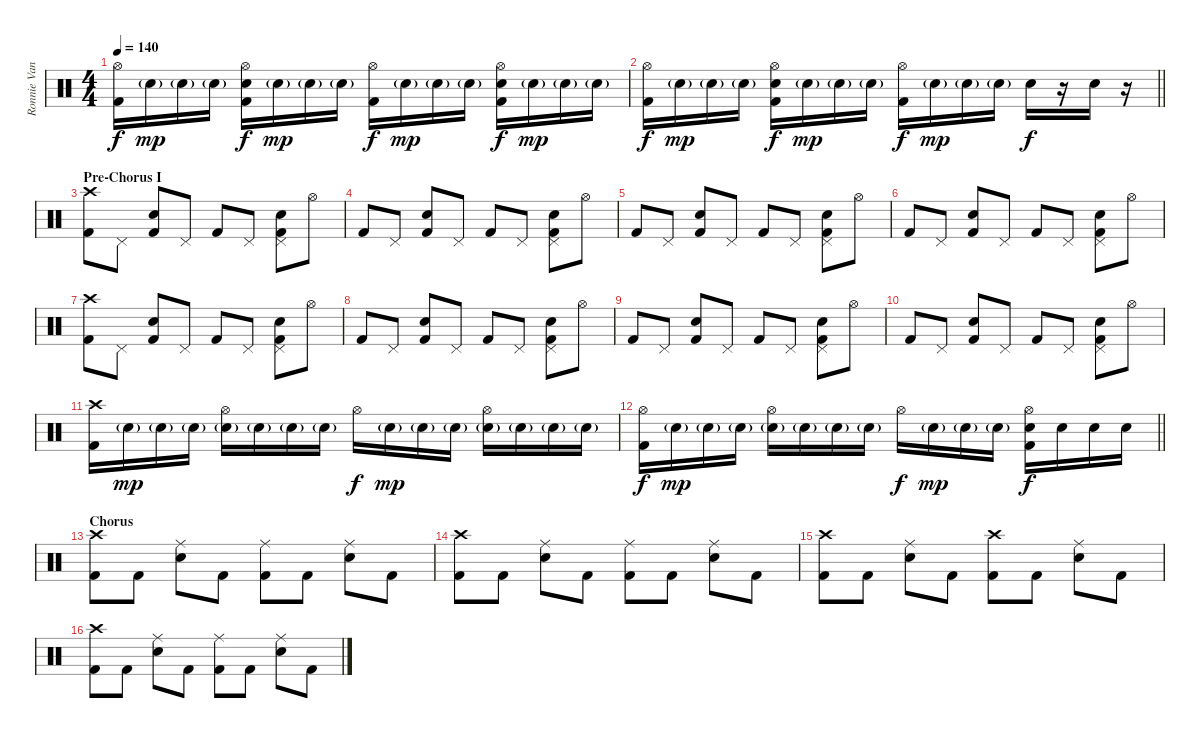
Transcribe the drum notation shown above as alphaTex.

\track ("Ronnie Vannucci Jr.'s drums" "Ronnie Van") {instrument percussion}
\staff {score}
\articulation defaults
\ts (4 4)
\tempo 140
\clef neutral
\ks c
("Hi-Hat (open)" "Kick (hit) 2").16{dy f} "Electric Snare (hit)"{g}.16{dy mp} "Electric Snare (hit)"{g}.16 "Electric Snare (hit)"{g}.16 ("Hi-Hat (open)" "Electric Snare (hit)" "Kick (hit) 2").16{dy f} "Electric Snare (hit)"{g}.16{dy mp} "Electric Snare (hit)"{g}.16 "Electric Snare (hit)"{g}.16 ("Hi-Hat (open)" "Kick (hit) 2").16{dy f} "Electric Snare (hit)"{g}.16{dy mp} "Electric Snare (hit)"{g}.16 "Electric Snare (hit)"{g}.16 ("Hi-Hat (open)" "Electric Snare (hit)" "Kick (hit) 2").16{dy f} "Electric Snare (hit)"{g}.16{dy mp} "Electric Snare (hit)"{g}.16 "Electric Snare (hit)"{g}.16 |
\barLineRight lightlight
("Hi-Hat (open)" "Kick (hit) 2").16{dy f} "Electric Snare (hit)"{g}.16{dy mp} "Electric Snare (hit)"{g}.16 "Electric Snare (hit)"{g}.16 ("Hi-Hat (open)" "Electric Snare (hit)" "Kick (hit) 2").16{dy f} "Electric Snare (hit)"{g}.16{dy mp} "Electric Snare (hit)"{g}.16 "Electric Snare (hit)"{g}.16 ("Hi-Hat (open)" "Kick (hit) 2").16{dy f} "Electric Snare (hit)"{g}.16{dy mp} "Electric Snare (hit)"{g}.16 "Electric Snare (hit)"{g}.16 "Electric Snare (hit)".16{dy f} r.16 "Electric Snare (hit)".16 r.16 |
\section ("" "Pre-Chorus I")
("Crash high (hit)" "Kick (hit) 2").8 "Pedal Hi-Hat (hit)".8 ("Kick (hit) 2" "Electric Snare (hit)").8 "Pedal Hi-Hat (hit)".8 "Kick (hit) 2".8 "Pedal Hi-Hat (hit)".8 ("Pedal Hi-Hat (hit)" "Kick (hit) 2" "Electric Snare (hit)").8 "Hi-Hat (open)".8 |
"Kick (hit) 2".8 "Pedal Hi-Hat (hit)".8 ("Kick (hit) 2" "Electric Snare (hit)").8 "Pedal Hi-Hat (hit)".8 "Kick (hit) 2".8 "Pedal Hi-Hat (hit)".8 ("Pedal Hi-Hat (hit)" "Kick (hit) 2" "Electric Snare (hit)").8 "Hi-Hat (open)".8 |
"Kick (hit) 2".8 "Pedal Hi-Hat (hit)".8 ("Kick (hit) 2" "Electric Snare (hit)").8 "Pedal Hi-Hat (hit)".8 "Kick (hit) 2".8 "Pedal Hi-Hat (hit)".8 ("Pedal Hi-Hat (hit)" "Kick (hit) 2" "Electric Snare (hit)").8 "Hi-Hat (open)".8 |
"Kick (hit) 2".8 "Pedal Hi-Hat (hit)".8 ("Kick (hit) 2" "Electric Snare (hit)").8 "Pedal Hi-Hat (hit)".8 "Kick (hit) 2".8 "Pedal Hi-Hat (hit)".8 ("Pedal Hi-Hat (hit)" "Kick (hit) 2" "Electric Snare (hit)").8 "Hi-Hat (open)".8 |
("Crash high (hit)" "Kick (hit) 2").8 "Pedal Hi-Hat (hit)".8 ("Kick (hit) 2" "Electric Snare (hit)").8 "Pedal Hi-Hat (hit)".8 "Kick (hit) 2".8 "Pedal Hi-Hat (hit)".8 ("Pedal Hi-Hat (hit)" "Kick (hit) 2" "Electric Snare (hit)").8 "Hi-Hat (open)".8 |
"Kick (hit) 2".8 "Pedal Hi-Hat (hit)".8 ("Kick (hit) 2" "Electric Snare (hit)").8 "Pedal Hi-Hat (hit)".8 "Kick (hit) 2".8 "Pedal Hi-Hat (hit)".8 ("Pedal Hi-Hat (hit)" "Kick (hit) 2" "Electric Snare (hit)").8 "Hi-Hat (open)".8 |
"Kick (hit) 2".8 "Pedal Hi-Hat (hit)".8 ("Kick (hit) 2" "Electric Snare (hit)").8 "Pedal Hi-Hat (hit)".8 "Kick (hit) 2".8 "Pedal Hi-Hat (hit)".8 ("Pedal Hi-Hat (hit)" "Kick (hit) 2" "Electric Snare (hit)").8 "Hi-Hat (open)".8 |
"Kick (hit) 2".8 "Pedal Hi-Hat (hit)".8 ("Kick (hit) 2" "Electric Snare (hit)").8 "Pedal Hi-Hat (hit)".8 "Kick (hit) 2".8 "Pedal Hi-Hat (hit)".8 ("Pedal Hi-Hat (hit)" "Kick (hit) 2" "Electric Snare (hit)").8 "Hi-Hat (open)".8 |
("Crash high (hit)" "Kick (hit) 2").16 "Electric Snare (hit)"{g}.16{dy mp} "Electric Snare (hit)"{g}.16 "Electric Snare (hit)"{g}.16 ("Hi-Hat (open)" "Electric Snare (hit)"{g}).16 "Electric Snare (hit)"{g}.16 "Electric Snare (hit)"{g}.16 "Electric Snare (hit)"{g}.16 "Hi-Hat (open)".16{dy f} "Electric Snare (hit)"{g}.16{dy mp} "Electric Snare (hit)"{g}.16 "Electric Snare (hit)"{g}.16 ("Hi-Hat (open)" "Electric Snare (hit)"{g}).16 "Electric Snare (hit)"{g}.16 "Electric Snare (hit)"{g}.16 "Electric Snare (hit)"{g}.16 |
\barLineRight lightlight
("Hi-Hat (open)" "Kick (hit) 2").16{dy f} "Electric Snare (hit)"{g}.16{dy mp} "Electric Snare (hit)"{g}.16 "Electric Snare (hit)"{g}.16 ("Hi-Hat (open)" "Electric Snare (hit)"{g}).16 "Electric Snare (hit)"{g}.16 "Electric Snare (hit)"{g}.16 "Electric Snare (hit)"{g}.16 "Hi-Hat (open)".16{dy f} "Electric Snare (hit)"{g}.16{dy mp} "Electric Snare (hit)"{g}.16 "Electric Snare (hit)"{g}.16 ("Hi-Hat (open)" "Electric Snare (hit)" "Kick (hit) 2").16{dy f} "Electric Snare (hit)".16 "Electric Snare (hit)".16 "Electric Snare (hit)".16 |
\section ("" "Chorus")
("Crash high (hit)" "Kick (hit) 2").8 "Kick (hit) 2".8 ("Electric Snare (hit)" "Ride (middle)").8 "Kick (hit) 2".8 ("Ride (middle)" "Kick (hit) 2").8 "Kick (hit) 2".8 ("Electric Snare (hit)" "Ride (middle)").8 "Kick (hit) 2".8 |
("Crash high (hit)" "Kick (hit) 2").8 "Kick (hit) 2".8 ("Electric Snare (hit)" "Ride (middle)").8 "Kick (hit) 2".8 ("Ride (middle)" "Kick (hit) 2").8 "Kick (hit) 2".8 ("Electric Snare (hit)" "Ride (middle)").8 "Kick (hit) 2".8 |
("Crash high (hit)" "Kick (hit) 2").8 "Kick (hit) 2".8 ("Electric Snare (hit)" "Ride (middle)").8 "Kick (hit) 2".8 ("Crash high (hit)" "Kick (hit) 2").8 "Kick (hit) 2".8 ("Electric Snare (hit)" "Ride (middle)").8 "Kick (hit) 2".8 |
("Crash high (hit)" "Kick (hit) 2").8 "Kick (hit) 2".8 ("Electric Snare (hit)" "Ride (middle)").8 "Kick (hit) 2".8 ("Ride (middle)" "Kick (hit) 2").8 "Kick (hit) 2".8 ("Electric Snare (hit)" "Ride (middle)").8 "Kick (hit) 2".8
